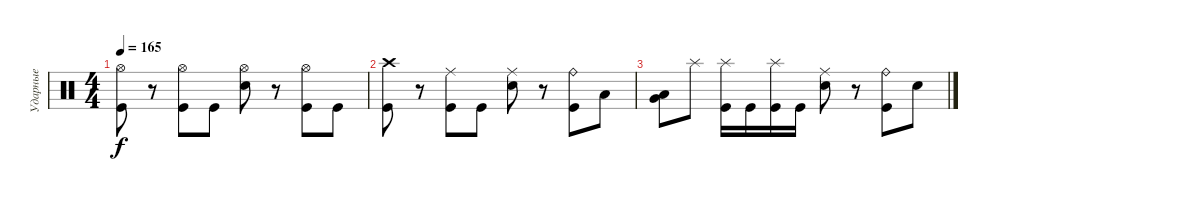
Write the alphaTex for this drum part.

\track ("Ударные" "Ударные") {instrument percussion}
\staff {score}
\articulation defaults
\ts (4 4)
\tempo 165
\clef neutral
\ks c
("Hi-Hat (open)" "Kick (hit)").8{dy f} r.8 ("Hi-Hat (open)" "Kick (hit)").8 "Kick (hit)".8 ("Hi-Hat (open)" "Electric Snare (hit)").8 r.8 ("Hi-Hat (open)" "Kick (hit)").8 "Kick (hit)".8 |
("Crash high (hit)" "Kick (hit)").8 r.8 ("Ride (middle)" "Kick (hit)").8 "Kick (hit)".8 ("Ride (middle)" "Electric Snare (hit)").8 r.8 ("Ride (bell)" "Kick (hit)").8 "Low Tom (hit)".8 |
("Low Tom (hit)" "Very Low Tom (hit)").8 "Splash (hit)".8 ("Splash (hit)" "Kick (hit)").16 "Kick (hit)".16 ("Splash (hit)" "Kick (hit)").16 "Kick (hit)".16 ("Ride (middle)" "Electric Snare (hit)").8 r.8 ("Ride (bell)" "Kick (hit)").8 "Electric Snare (hit)".8
